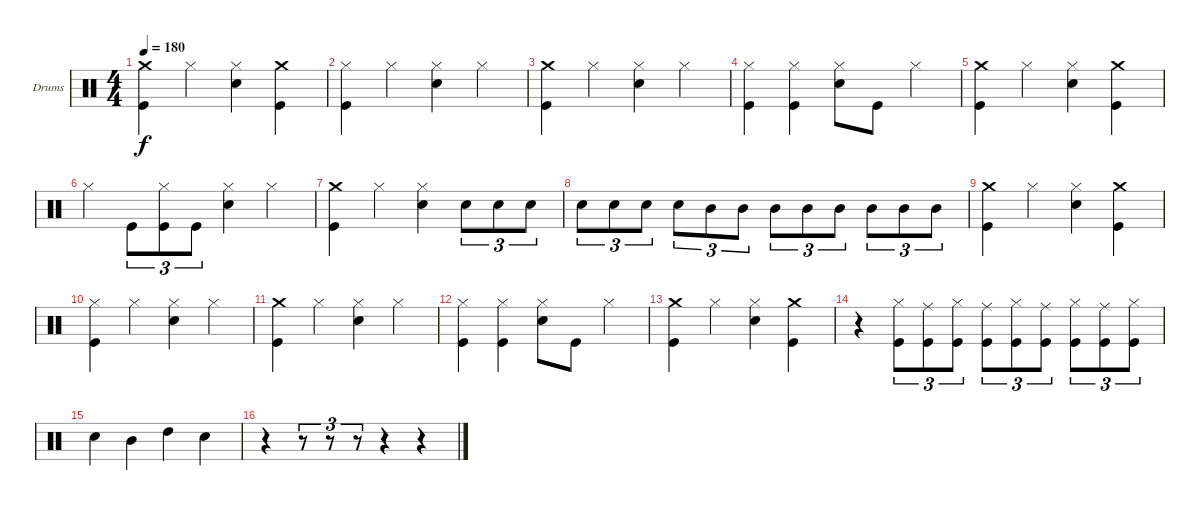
\bracketExtendMode groupsimilarinstruments
\firstSystemTrackNameOrientation horizontal
\otherSystemsTrackNameOrientation horizontal
\track ("Drumkit" "Drums") {instrument percussion}
\staff {score}
\articulation defaults
\ts (4 4)
\tempo 180
\clef neutral
\ks c
("Crash medium (hit)" "Kick (hit)").4{dy f} "Hi-Hat (closed)".4 ("Hi-Hat (closed)" "Snare (hit) 2").4 ("Crash medium (hit)" "Kick (hit)").4 |
("Hi-Hat (closed)" "Kick (hit)").4 "Hi-Hat (closed)".4 ("Hi-Hat (closed)" "Snare (hit) 2").4 "Hi-Hat (closed)".4 |
("Crash medium (hit)" "Kick (hit)").4 "Hi-Hat (closed)".4 ("Hi-Hat (closed)" "Snare (hit) 2").4 "Hi-Hat (closed)".4 |
("Hi-Hat (closed)" "Kick (hit)").4 ("Hi-Hat (closed)" "Kick (hit)").4 ("Hi-Hat (closed)" "Snare (hit) 2").8 "Kick (hit)".8 "Hi-Hat (closed)".4 |
("Crash medium (hit)" "Kick (hit)").4 "Hi-Hat (closed)".4 ("Hi-Hat (closed)" "Snare (hit) 2").4 ("Crash medium (hit)" "Kick (hit)").4 |
"Hi-Hat (closed)".4 "Kick (hit)".8{tu (3 2)} ("Hi-Hat (closed)" "Kick (hit)").8{tu (3 2)} "Kick (hit)".8{tu (3 2)} ("Hi-Hat (closed)" "Snare (hit) 2").4 "Hi-Hat (closed)".4 |
("Crash medium (hit)" "Kick (hit)").4 "Hi-Hat (closed)".4 ("Hi-Hat (closed)" "Snare (hit) 2").4 "Snare (hit) 2".8{tu (3 2)} "Snare (hit) 2".8{tu (3 2)} "Snare (hit) 2".8{tu (3 2)} |
"Snare (hit) 2".8{tu (3 2)} "Snare (hit) 2".8{tu (3 2)} "Snare (hit) 2".8{tu (3 2)} "Snare (hit) 2".8{tu (3 2)} "Mid Tom (hit)".8{tu (3 2)} "Mid Tom (hit)".8{tu (3 2)} "Mid Tom (hit)".8{tu (3 2)} "Mid Tom (hit)".8{tu (3 2)} "Mid Tom (hit)".8{tu (3 2)} "Mid Tom (hit)".8{tu (3 2)} "Mid Tom (hit)".8{tu (3 2)} "Mid Tom (hit)".8{tu (3 2)} |
("Crash medium (hit)" "Kick (hit)").4 "Hi-Hat (closed)".4 ("Hi-Hat (closed)" "Snare (hit) 2").4 ("Crash medium (hit)" "Kick (hit)").4 |
("Hi-Hat (closed)" "Kick (hit)").4 "Hi-Hat (closed)".4 ("Hi-Hat (closed)" "Snare (hit) 2").4 "Hi-Hat (closed)".4 |
("Crash medium (hit)" "Kick (hit)").4 "Hi-Hat (closed)".4 ("Hi-Hat (closed)" "Snare (hit) 2").4 "Hi-Hat (closed)".4 |
("Hi-Hat (closed)" "Kick (hit)").4 ("Hi-Hat (closed)" "Kick (hit)").4 ("Hi-Hat (closed)" "Snare (hit) 2").8 "Kick (hit)".8 "Hi-Hat (closed)".4 |
("Crash medium (hit)" "Kick (hit)").4 "Hi-Hat (closed)".4 ("Hi-Hat (closed)" "Snare (hit) 2").4 ("Crash medium (hit)" "Kick (hit)").4 |
r.4 ("Hi-Hat (closed)" "Kick (hit)").8{tu (3 2)} ("Ride (middle)" "Kick (hit)").8{tu (3 2)} ("Hi-Hat (closed)" "Kick (hit)").8{tu (3 2)} ("Ride (middle)" "Kick (hit)").8{tu (3 2)} ("Hi-Hat (closed)" "Kick (hit)").8{tu (3 2)} ("Ride (middle)" "Kick (hit)").8{tu (3 2)} ("Hi-Hat (closed)" "Kick (hit)").8{tu (3 2)} ("Ride (middle)" "Kick (hit)").8{tu (3 2)} ("Hi-Hat (closed)" "Kick (hit)").8{tu (3 2)} |
"Snare (hit) 2".4 "Mid Tom (hit)".4 "High Tom (hit)".4 "Snare (hit) 2".4 |
r.4 r.8{tu (3 2)} r.8{tu (3 2)} r.8{tu (3 2)} r.4 r.4
